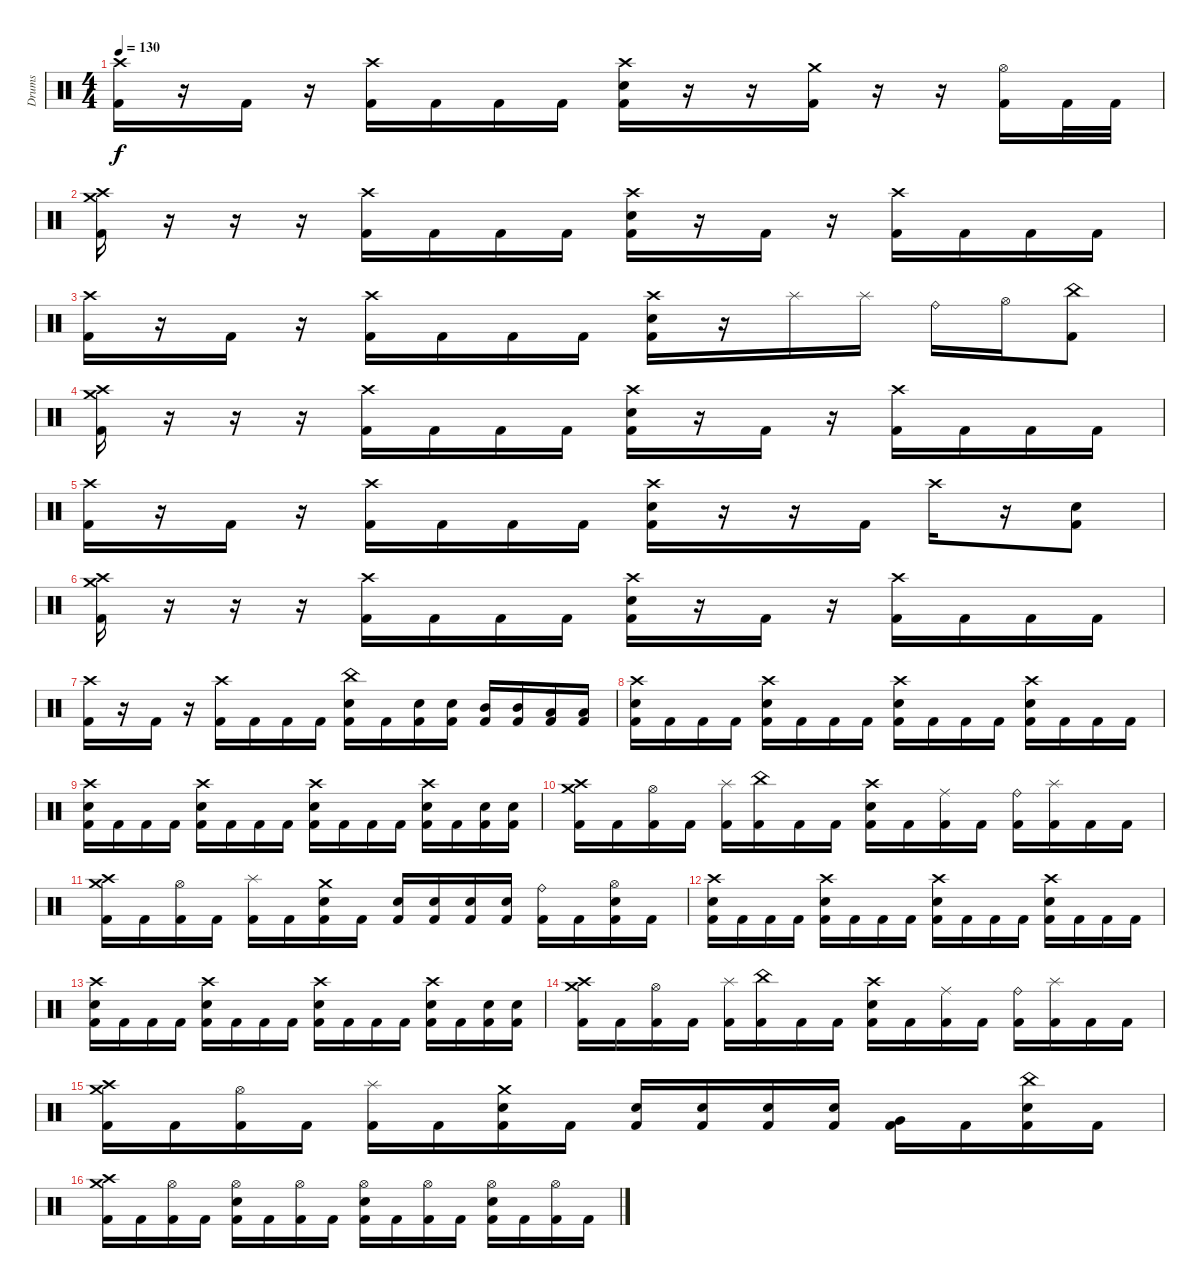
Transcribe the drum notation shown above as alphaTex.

\track ("Drums" "Drums") {instrument percussion}
\staff {score}
\articulation defaults
\ts (4 4)
\tempo 130
\clef neutral
\ks c
("Crash high (hit)" "Kick (hit) 2").16{dy f} r.16 "Kick (hit) 2".16 r.16 ("Crash high (hit)" "Kick (hit) 2").16 "Kick (hit) 2".16 "Kick (hit) 2".16 "Kick (hit) 2".16 ("Crash high (hit)" "Electric Snare (hit)" "Kick (hit) 2").16 r.16 r.16 ("Crash medium (hit)" "Kick (hit) 2").16 r.16 r.16 ("Hi-Hat (open)" "Kick (hit) 2").16 "Kick (hit) 2".32 "Kick (hit) 2".32 |
("Crash high (hit)" "Crash medium (hit)" "Kick (hit) 2").16 r.16 r.16 r.16 ("Crash high (hit)" "Kick (hit) 2").16 "Kick (hit) 2".16 "Kick (hit) 2".16 "Kick (hit) 2".16 ("Crash high (hit)" "Electric Snare (hit)" "Kick (hit) 2").16 r.16 "Kick (hit) 2".16 r.16 ("Crash high (hit)" "Kick (hit) 2").16 "Kick (hit) 2".16 "Kick (hit) 2".16 "Kick (hit) 2".16 |
("Crash high (hit)" "Kick (hit) 2").16 r.16 "Kick (hit) 2".16 r.16 ("Crash high (hit)" "Kick (hit) 2").16 "Kick (hit) 2".16 "Kick (hit) 2".16 "Kick (hit) 2".16 ("Crash high (hit)" "Electric Snare (hit)" "Kick (hit) 2").16 r.16 "Splash (hit)".16 "Splash (hit)".16 "Ride (bell)".16 "Hi-Hat (open)".16 ("China (hit)" "Kick (hit) 2").8 |
("Crash high (hit)" "Crash medium (hit)" "Kick (hit) 2").16 r.16 r.16 r.16 ("Crash high (hit)" "Kick (hit) 2").16 "Kick (hit) 2".16 "Kick (hit) 2".16 "Kick (hit) 2".16 ("Crash high (hit)" "Electric Snare (hit)" "Kick (hit) 2").16 r.16 "Kick (hit) 2".16 r.16 ("Crash high (hit)" "Kick (hit) 2").16 "Kick (hit) 2".16 "Kick (hit) 2".16 "Kick (hit) 2".16 |
("Crash high (hit)" "Kick (hit) 2").16 r.16 "Kick (hit) 2".16 r.16 ("Crash high (hit)" "Kick (hit) 2").16 "Kick (hit) 2".16 "Kick (hit) 2".16 "Kick (hit) 2".16 ("Crash high (hit)" "Electric Snare (hit)" "Kick (hit) 2").16 r.16 r.16 "Kick (hit) 2".16 "Crash high (hit)".16 r.16 ("Electric Snare (hit)" "Kick (hit) 2").8 |
("Crash high (hit)" "Crash medium (hit)" "Kick (hit) 2").16 r.16 r.16 r.16 ("Crash high (hit)" "Kick (hit) 2").16 "Kick (hit) 2".16 "Kick (hit) 2".16 "Kick (hit) 2".16 ("Crash high (hit)" "Electric Snare (hit)" "Kick (hit) 2").16 r.16 "Kick (hit) 2".16 r.16 ("Crash high (hit)" "Kick (hit) 2").16 "Kick (hit) 2".16 "Kick (hit) 2".16 "Kick (hit) 2".16 |
("Crash high (hit)" "Kick (hit) 2").16 r.16 "Kick (hit) 2".16 r.16 ("Crash high (hit)" "Kick (hit) 2").16 "Kick (hit) 2".16 "Kick (hit) 2".16 "Kick (hit) 2".16 ("China (hit)" "Electric Snare (hit)" "Kick (hit) 2").16 "Kick (hit) 2".16 ("Electric Snare (hit)" "Kick (hit) 2").16 ("Electric Snare (hit)" "Kick (hit) 2").16 ("Mid Tom (hit)" "Kick (hit) 2").16 ("Mid Tom (hit)" "Kick (hit) 2").16 ("Low Tom (hit)" "Kick (hit) 2").16 ("Low Tom (hit)" "Kick (hit) 2").16 |
("Crash high (hit)" "Electric Snare (hit)" "Kick (hit) 2").16 "Kick (hit) 2".16 "Kick (hit) 2".16 "Kick (hit) 2".16 ("Crash high (hit)" "Electric Snare (hit)" "Kick (hit) 2").16 "Kick (hit) 2".16 "Kick (hit) 2".16 "Kick (hit) 2".16 ("Crash high (hit)" "Electric Snare (hit)" "Kick (hit) 2").16 "Kick (hit) 2".16 "Kick (hit) 2".16 "Kick (hit) 2".16 ("Crash high (hit)" "Electric Snare (hit)" "Kick (hit) 2").16 "Kick (hit) 2".16 "Kick (hit) 2".16 "Kick (hit) 2".16 |
("Crash high (hit)" "Electric Snare (hit)" "Kick (hit) 2").16 "Kick (hit) 2".16 "Kick (hit) 2".16 "Kick (hit) 2".16 ("Crash high (hit)" "Electric Snare (hit)" "Kick (hit) 2").16 "Kick (hit) 2".16 "Kick (hit) 2".16 "Kick (hit) 2".16 ("Crash high (hit)" "Electric Snare (hit)" "Kick (hit) 2").16 "Kick (hit) 2".16 "Kick (hit) 2".16 "Kick (hit) 2".16 ("Crash high (hit)" "Electric Snare (hit)" "Kick (hit) 2").16 "Kick (hit) 2".16 ("Electric Snare (hit)" "Kick (hit) 2").16 ("Electric Snare (hit)" "Kick (hit) 2").16 |
("Crash high (hit)" "Crash medium (hit)" "Kick (hit) 2").16 "Kick (hit) 2".16 ("Hi-Hat (open)" "Kick (hit) 2").16 "Kick (hit) 2".16 ("Splash (hit)" "Kick (hit) 2").16 ("China (hit)" "Kick (hit) 2").16 "Kick (hit) 2".16 "Kick (hit) 2".16 ("Crash high (hit)" "Electric Snare (hit)" "Kick (hit) 2").16 "Kick (hit) 2".16 ("Ride (middle)" "Kick (hit) 2").16 "Kick (hit) 2".16 ("Ride (bell)" "Kick (hit) 2").16 ("Splash (hit)" "Kick (hit) 2").16 "Kick (hit) 2".16 "Kick (hit) 2".16 |
("Crash high (hit)" "Crash medium (hit)" "Kick (hit) 2").16 "Kick (hit) 2".16 ("Hi-Hat (open)" "Kick (hit) 2").16 "Kick (hit) 2".16 ("Splash (hit)" "Kick (hit) 2").16 "Kick (hit) 2".16 ("Crash medium (hit)" "Electric Snare (hit)" "Kick (hit) 2").16 "Kick (hit) 2".16 ("Electric Snare (hit)" "Kick (hit) 2").16 ("Electric Snare (hit)" "Kick (hit) 2").16 ("Electric Snare (hit)" "Kick (hit) 2").16 ("Electric Snare (hit)" "Kick (hit) 2").16 ("Ride (bell)" "Kick (hit) 2").16 "Kick (hit) 2".16 ("Hi-Hat (open)" "Electric Snare (hit)" "Kick (hit) 2").16 "Kick (hit) 2".16 |
("Crash high (hit)" "Electric Snare (hit)" "Kick (hit) 2").16 "Kick (hit) 2".16 "Kick (hit) 2".16 "Kick (hit) 2".16 ("Crash high (hit)" "Electric Snare (hit)" "Kick (hit) 2").16 "Kick (hit) 2".16 "Kick (hit) 2".16 "Kick (hit) 2".16 ("Crash high (hit)" "Electric Snare (hit)" "Kick (hit) 2").16 "Kick (hit) 2".16 "Kick (hit) 2".16 "Kick (hit) 2".16 ("Crash high (hit)" "Electric Snare (hit)" "Kick (hit) 2").16 "Kick (hit) 2".16 "Kick (hit) 2".16 "Kick (hit) 2".16 |
("Crash high (hit)" "Electric Snare (hit)" "Kick (hit) 2").16 "Kick (hit) 2".16 "Kick (hit) 2".16 "Kick (hit) 2".16 ("Crash high (hit)" "Electric Snare (hit)" "Kick (hit) 2").16 "Kick (hit) 2".16 "Kick (hit) 2".16 "Kick (hit) 2".16 ("Crash high (hit)" "Electric Snare (hit)" "Kick (hit) 2").16 "Kick (hit) 2".16 "Kick (hit) 2".16 "Kick (hit) 2".16 ("Crash high (hit)" "Electric Snare (hit)" "Kick (hit) 2").16 "Kick (hit) 2".16 ("Electric Snare (hit)" "Kick (hit) 2").16 ("Electric Snare (hit)" "Kick (hit) 2").16 |
("Crash high (hit)" "Crash medium (hit)" "Kick (hit) 2").16 "Kick (hit) 2".16 ("Hi-Hat (open)" "Kick (hit) 2").16 "Kick (hit) 2".16 ("Splash (hit)" "Kick (hit) 2").16 ("China (hit)" "Kick (hit) 2").16 "Kick (hit) 2".16 "Kick (hit) 2".16 ("Crash high (hit)" "Electric Snare (hit)" "Kick (hit) 2").16 "Kick (hit) 2".16 ("Ride (middle)" "Kick (hit) 2").16 "Kick (hit) 2".16 ("Ride (bell)" "Kick (hit) 2").16 ("Splash (hit)" "Kick (hit) 2").16 "Kick (hit) 2".16 "Kick (hit) 2".16 |
("Crash high (hit)" "Crash medium (hit)" "Kick (hit) 2").16 "Kick (hit) 2".16 ("Hi-Hat (open)" "Kick (hit) 2").16 "Kick (hit) 2".16 ("Splash (hit)" "Kick (hit) 2").16 "Kick (hit) 2".16 ("Crash medium (hit)" "Electric Snare (hit)" "Kick (hit) 2").16 "Kick (hit) 2".16 ("Electric Snare (hit)" "Kick (hit) 2").16 ("Electric Snare (hit)" "Kick (hit) 2").16 ("Electric Snare (hit)" "Kick (hit) 2").16 ("Electric Snare (hit)" "Kick (hit) 2").16 ("Very Low Tom (hit)" "Kick (hit) 2").16 "Kick (hit) 2".16 ("China (hit)" "Electric Snare (hit)" "Kick (hit) 2").16 "Kick (hit) 2".16 |
("Crash high (hit)" "Crash medium (hit)" "Kick (hit) 2").16 "Kick (hit) 2".16 ("Hi-Hat (open)" "Kick (hit) 2").16 "Kick (hit) 2".16 ("Hi-Hat (open)" "Electric Snare (hit)" "Kick (hit) 2").16 "Kick (hit) 2".16 ("Hi-Hat (open)" "Kick (hit) 2").16 "Kick (hit) 2".16 ("Hi-Hat (open)" "Electric Snare (hit)" "Kick (hit) 2").16 "Kick (hit) 2".16 ("Hi-Hat (open)" "Kick (hit) 2").16 "Kick (hit) 2".16 ("Hi-Hat (open)" "Electric Snare (hit)" "Kick (hit) 2").16 "Kick (hit) 2".16 ("Hi-Hat (open)" "Kick (hit) 2").16 "Kick (hit) 2".16
